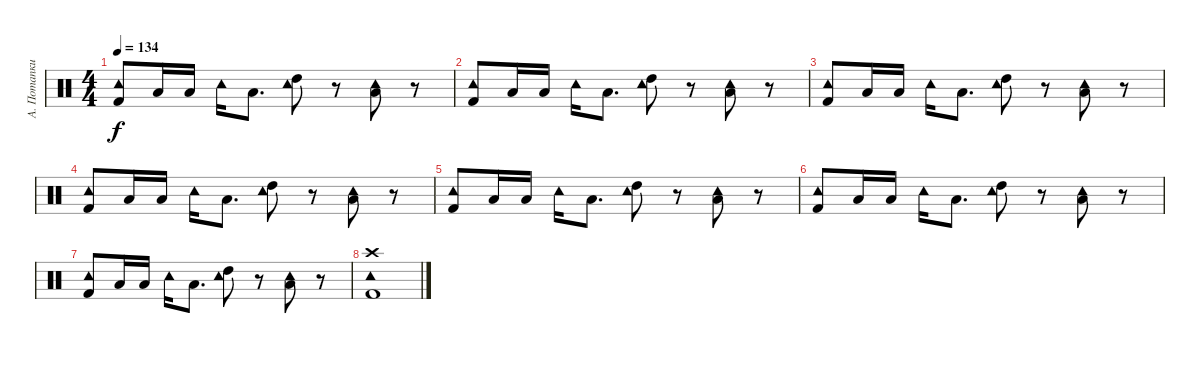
\track ("А. Потапкин" "А. Потапки") {instrument percussion}
\staff {score}
\articulation defaults
\ts (4 4)
\tempo 134
\clef neutral
\ks c
("Tambourine (hit)" "Kick (hit) 2").8{dy f} "Low Tom (hit)".16 "Low Tom (hit)".16 "Tambourine (hit)".16 "Low Tom (hit)".8{d} ("Tambourine (hit)" "High Tom (hit)").8 r.8 ("Tambourine (hit)" "Low Tom (hit)").8 r.8 |
("Tambourine (hit)" "Kick (hit) 2").8 "Low Tom (hit)".16 "Low Tom (hit)".16 "Tambourine (hit)".16 "Low Tom (hit)".8{d} ("Tambourine (hit)" "High Tom (hit)").8 r.8 ("Tambourine (hit)" "Low Tom (hit)").8 r.8 |
("Tambourine (hit)" "Kick (hit) 2").8 "Low Tom (hit)".16 "Low Tom (hit)".16 "Tambourine (hit)".16 "Low Tom (hit)".8{d} ("Tambourine (hit)" "High Tom (hit)").8 r.8 ("Tambourine (hit)" "Low Tom (hit)").8 r.8 |
("Tambourine (hit)" "Kick (hit) 2").8 "Low Tom (hit)".16 "Low Tom (hit)".16 "Tambourine (hit)".16 "Low Tom (hit)".8{d} ("Tambourine (hit)" "High Tom (hit)").8 r.8 ("Tambourine (hit)" "Low Tom (hit)").8 r.8 |
("Tambourine (hit)" "Kick (hit) 2").8 "Low Tom (hit)".16 "Low Tom (hit)".16 "Tambourine (hit)".16 "Low Tom (hit)".8{d} ("Tambourine (hit)" "High Tom (hit)").8 r.8 ("Tambourine (hit)" "Low Tom (hit)").8 r.8 |
("Tambourine (hit)" "Kick (hit) 2").8 "Low Tom (hit)".16 "Low Tom (hit)".16 "Tambourine (hit)".16 "Low Tom (hit)".8{d} ("Tambourine (hit)" "High Tom (hit)").8 r.8 ("Tambourine (hit)" "Low Tom (hit)").8 r.8 |
("Tambourine (hit)" "Kick (hit) 2").8 "Low Tom (hit)".16 "Low Tom (hit)".16 "Tambourine (hit)".16 "Low Tom (hit)".8{d} ("Tambourine (hit)" "High Tom (hit)").8 r.8 ("Tambourine (hit)" "Low Tom (hit)").8 r.8 |
("Crash high (hit)" "Tambourine (hit)" "Kick (hit) 2").1
